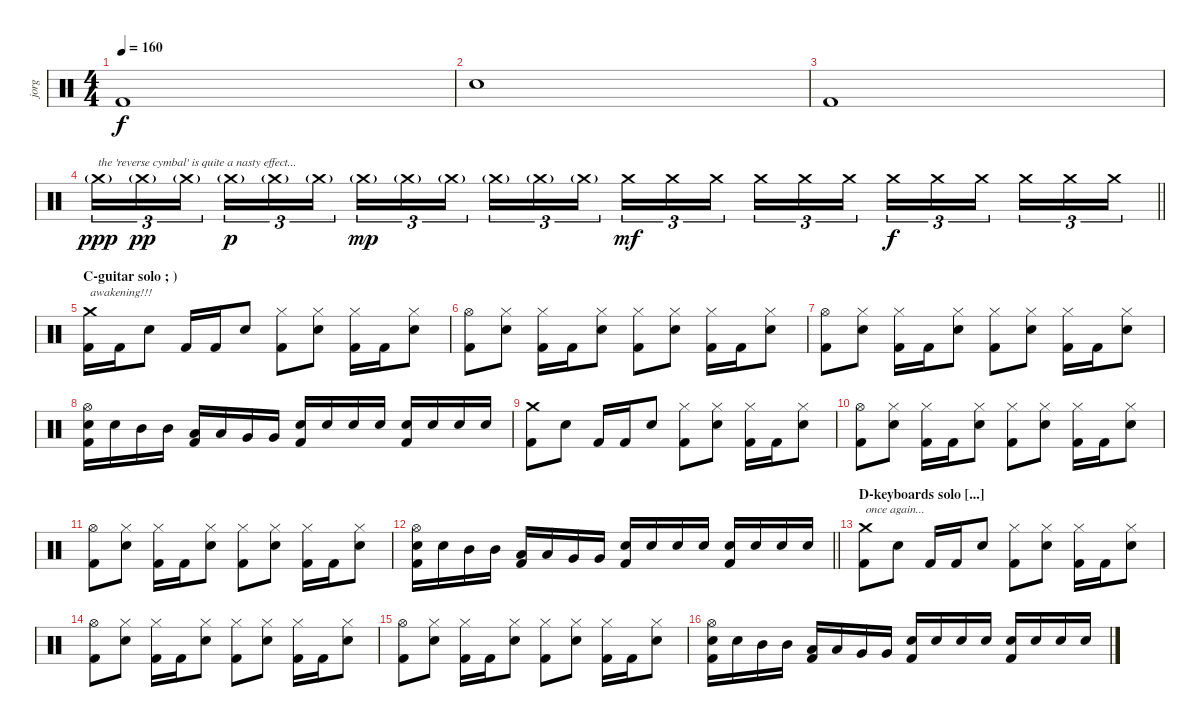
\track ("jorg" "jorg") {instrument percussion}
\staff {score}
\articulation defaults
\ts (4 4)
\tempo 160
\clef neutral
\ks c "Kick (hit) 2".1{dy f}
|
"Electric Snare (hit)".1 |
"Kick (hit) 2".1 |
\barLineRight lightlight "Crash medium (hit)"{g}.16{tu (3 2) txt "the 'reverse cymbal' is quite a nasty effect..." dy ppp} "Crash medium (hit)"{g}.16{tu (3 2) dy pp} "Crash medium (hit)"{g}.16{tu (3 2)} "Crash medium (hit)"{g}.16{tu (3 2) dy p} "Crash medium (hit)"{g}.16{tu (3 2)} "Crash medium (hit)"{g}.16{tu (3 2)} "Crash medium (hit)"{g}.16{tu (3 2) dy mp} "Crash medium (hit)"{g}.16{tu (3 2)} "Crash medium (hit)"{g}.16{tu (3 2)} "Crash medium (hit)"{g}.16{tu (3 2)} "Crash medium (hit)"{g}.16{tu (3 2)} "Crash medium (hit)"{g}.16{tu (3 2)} "Crash medium (hit)".16{tu (3 2) dy mf} "Crash medium (hit)".16{tu (3 2)} "Crash medium (hit)".16{tu (3 2)} "Crash medium (hit)".16{tu (3 2)} "Crash medium (hit)".16{tu (3 2)} "Crash medium (hit)".16{tu (3 2)} "Crash medium (hit)".16{tu (3 2) dy f} "Crash medium (hit)".16{tu (3 2)} "Crash medium (hit)".16{tu (3 2)} "Crash medium (hit)".16{tu (3 2)} "Crash medium (hit)".16{tu (3 2)} "Crash medium (hit)".16{tu (3 2)}
|
\section ("" "C-guitar solo ; )")
("Crash medium (hit)" "Kick (hit) 2").16{txt "awakening!!!"} "Kick (hit) 2".16 "Electric Snare (hit)".8 "Kick (hit) 2".16 "Kick (hit) 2".16 "Electric Snare (hit)".8 ("Hi-Hat (closed)" "Kick (hit) 2").8 ("Hi-Hat (closed)" "Electric Snare (hit)").8 ("Hi-Hat (closed)" "Kick (hit) 2").16 "Kick (hit) 2".16 ("Hi-Hat (closed)" "Electric Snare (hit)").8 |
("Hi-Hat (open)" "Kick (hit) 2").8 ("Hi-Hat (closed)" "Electric Snare (hit)").8 ("Hi-Hat (closed)" "Kick (hit) 2").16 "Kick (hit) 2".16 ("Hi-Hat (closed)" "Electric Snare (hit)").8 ("Hi-Hat (closed)" "Kick (hit) 2").8 ("Hi-Hat (closed)" "Electric Snare (hit)").8 ("Hi-Hat (closed)" "Kick (hit) 2").16 "Kick (hit) 2".16 ("Hi-Hat (closed)" "Electric Snare (hit)").8 |
("Hi-Hat (open)" "Kick (hit) 2").8 ("Hi-Hat (closed)" "Electric Snare (hit)").8 ("Hi-Hat (closed)" "Kick (hit) 2").16 "Kick (hit) 2".16 ("Hi-Hat (closed)" "Electric Snare (hit)").8 ("Hi-Hat (closed)" "Kick (hit) 2").8 ("Hi-Hat (closed)" "Electric Snare (hit)").8 ("Hi-Hat (closed)" "Kick (hit) 2").16 "Kick (hit) 2".16 ("Hi-Hat (closed)" "Electric Snare (hit)").8 |
("Hi-Hat (open)" "Electric Snare (hit)" "Kick (hit) 2").16 "Electric Snare (hit)".16 "Mid Tom (hit)".16 "Mid Tom (hit)".16 ("Low Tom (hit)" "Kick (hit) 2").16 "Low Tom (hit)".16 "Very Low Tom (hit)".16 "Very Low Tom (hit)".16 ("Electric Snare (hit)" "Kick (hit) 2").16 "Electric Snare (hit)".16 "Electric Snare (hit)".16 "Electric Snare (hit)".16 ("Electric Snare (hit)" "Kick (hit) 2").16 "Electric Snare (hit)".16 "Electric Snare (hit)".16 "Electric Snare (hit)".16 |
("Crash medium (hit)" "Kick (hit) 2").8 "Electric Snare (hit)".8 "Kick (hit) 2".16 "Kick (hit) 2".16 "Electric Snare (hit)".8 ("Hi-Hat (closed)" "Kick (hit) 2").8 ("Hi-Hat (closed)" "Electric Snare (hit)").8 ("Hi-Hat (closed)" "Kick (hit) 2").16 "Kick (hit) 2".16 ("Hi-Hat (closed)" "Electric Snare (hit)").8 |
("Hi-Hat (open)" "Kick (hit) 2").8 ("Hi-Hat (closed)" "Electric Snare (hit)").8 ("Hi-Hat (closed)" "Kick (hit) 2").16 "Kick (hit) 2".16 ("Hi-Hat (closed)" "Electric Snare (hit)").8 ("Hi-Hat (closed)" "Kick (hit) 2").8 ("Hi-Hat (closed)" "Electric Snare (hit)").8 ("Hi-Hat (closed)" "Kick (hit) 2").16 "Kick (hit) 2".16 ("Hi-Hat (closed)" "Electric Snare (hit)").8 |
("Hi-Hat (open)" "Kick (hit) 2").8 ("Hi-Hat (closed)" "Electric Snare (hit)").8 ("Hi-Hat (closed)" "Kick (hit) 2").16 "Kick (hit) 2".16 ("Hi-Hat (closed)" "Electric Snare (hit)").8 ("Hi-Hat (closed)" "Kick (hit) 2").8 ("Hi-Hat (closed)" "Electric Snare (hit)").8 ("Hi-Hat (closed)" "Kick (hit) 2").16 "Kick (hit) 2".16 ("Hi-Hat (closed)" "Electric Snare (hit)").8 |
\barLineRight lightlight
("Hi-Hat (open)" "Electric Snare (hit)" "Kick (hit) 2").16 "Electric Snare (hit)".16 "Mid Tom (hit)".16 "Mid Tom (hit)".16 ("Low Tom (hit)" "Kick (hit) 2").16 "Low Tom (hit)".16 "Very Low Tom (hit)".16 "Very Low Tom (hit)".16 ("Electric Snare (hit)" "Kick (hit) 2").16 "Electric Snare (hit)".16 "Electric Snare (hit)".16 "Electric Snare (hit)".16 ("Electric Snare (hit)" "Kick (hit) 2").16 "Electric Snare (hit)".16 "Electric Snare (hit)".16 "Electric Snare (hit)".16 |
\section ("" "D-keyboards solo [...]")
("Crash medium (hit)" "Kick (hit) 2").8{txt "once again..."} "Electric Snare (hit)".8 "Kick (hit) 2".16 "Kick (hit) 2".16 "Electric Snare (hit)".8 ("Hi-Hat (closed)" "Kick (hit) 2").8 ("Hi-Hat (closed)" "Electric Snare (hit)").8 ("Hi-Hat (closed)" "Kick (hit) 2").16 "Kick (hit) 2".16 ("Hi-Hat (closed)" "Electric Snare (hit)").8 |
("Hi-Hat (open)" "Kick (hit) 2").8 ("Hi-Hat (closed)" "Electric Snare (hit)").8 ("Hi-Hat (closed)" "Kick (hit) 2").16 "Kick (hit) 2".16 ("Hi-Hat (closed)" "Electric Snare (hit)").8 ("Hi-Hat (closed)" "Kick (hit) 2").8 ("Hi-Hat (closed)" "Electric Snare (hit)").8 ("Hi-Hat (closed)" "Kick (hit) 2").16 "Kick (hit) 2".16 ("Hi-Hat (closed)" "Electric Snare (hit)").8 |
("Hi-Hat (open)" "Kick (hit) 2").8 ("Hi-Hat (closed)" "Electric Snare (hit)").8 ("Hi-Hat (closed)" "Kick (hit) 2").16 "Kick (hit) 2".16 ("Hi-Hat (closed)" "Electric Snare (hit)").8 ("Hi-Hat (closed)" "Kick (hit) 2").8 ("Hi-Hat (closed)" "Electric Snare (hit)").8 ("Hi-Hat (closed)" "Kick (hit) 2").16 "Kick (hit) 2".16 ("Hi-Hat (closed)" "Electric Snare (hit)").8 |
("Hi-Hat (open)" "Electric Snare (hit)" "Kick (hit) 2").16 "Electric Snare (hit)".16 "Mid Tom (hit)".16 "Mid Tom (hit)".16 ("Low Tom (hit)" "Kick (hit) 2").16 "Low Tom (hit)".16 "Very Low Tom (hit)".16 "Very Low Tom (hit)".16 ("Electric Snare (hit)" "Kick (hit) 2").16 "Electric Snare (hit)".16 "Electric Snare (hit)".16 "Electric Snare (hit)".16 ("Electric Snare (hit)" "Kick (hit) 2").16 "Electric Snare (hit)".16 "Electric Snare (hit)".16 "Electric Snare (hit)".16
